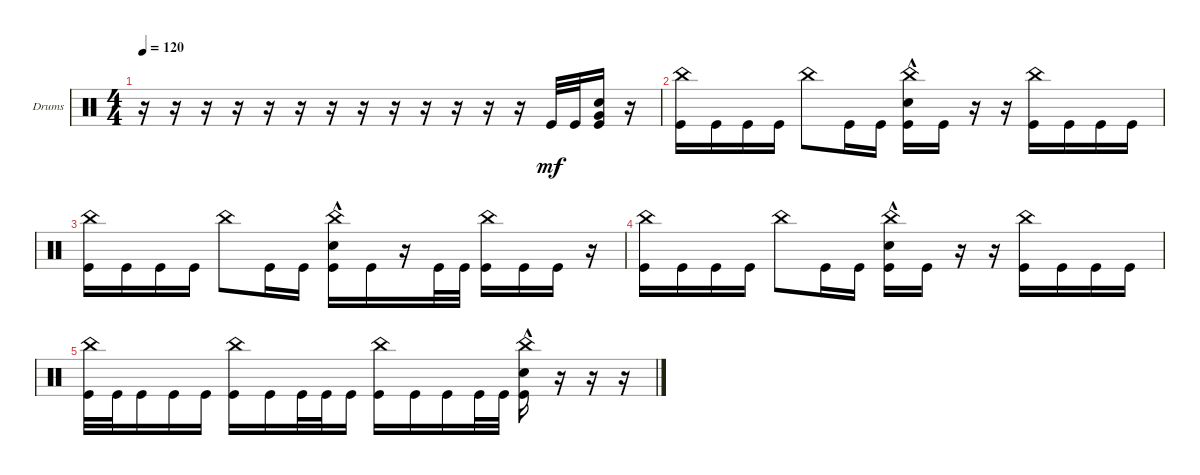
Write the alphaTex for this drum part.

\defaultSystemsLayout 4
\bracketExtendMode groupsimilarinstruments
\firstSystemTrackNameOrientation horizontal
\otherSystemsTrackNameOrientation horizontal
\track ("Drumkit" "Drums") {instrument percussion}
\staff {score}
\articulation defaults
\ts (4 4)
\tempo 120
\clef neutral
\ks c
r.16{dy mf} r.16 r.16 r.16 r.16 r.16 r.16 r.16 r.16 r.16 r.16 r.16 r.16 "Kick (hit)".32 "Kick (hit)".32 ("Kick (hit)" "Very Low Tom (hit)" "Snare (hit) 2").16 r.16 |
("China (hit)" "Kick (hit)").16 "Kick (hit)".16 "Kick (hit)".16 "Kick (hit)".16 "China (hit)".8 "Kick (hit)".16 "Kick (hit)".16 ("Kick (hit)" "China (hit)" "Snare (hit) 2"{hac}).16 "Kick (hit)".16 r.16 r.16 ("China (hit)" "Kick (hit)").16 "Kick (hit)".16 "Kick (hit)".16 "Kick (hit)".16 |
("China (hit)" "Kick (hit)").16 "Kick (hit)".16 "Kick (hit)".16 "Kick (hit)".16 "China (hit)".8 "Kick (hit)".16 "Kick (hit)".16 ("Kick (hit)" "China (hit)" "Snare (hit) 2"{hac}).16 "Kick (hit)".16 r.16 "Kick (hit)".32 "Kick (hit)".32 ("China (hit)" "Kick (hit)").16 "Kick (hit)".16 "Kick (hit)".16 r.16 |
("China (hit)" "Kick (hit)").16 "Kick (hit)".16 "Kick (hit)".16 "Kick (hit)".16 "China (hit)".8 "Kick (hit)".16 "Kick (hit)".16 ("Kick (hit)" "China (hit)" "Snare (hit) 2"{hac}).16 "Kick (hit)".16 r.16 r.16 ("China (hit)" "Kick (hit)").16 "Kick (hit)".16 "Kick (hit)".16 "Kick (hit)".16 |
("China (hit)" "Kick (hit)").32 "Kick (hit)".32 "Kick (hit)".16 "Kick (hit)".16 "Kick (hit)".16 ("China (hit)" "Kick (hit)").16 "Kick (hit)".16 "Kick (hit)".32 "Kick (hit)".32 "Kick (hit)".16 ("Kick (hit)" "China (hit)").16 "Kick (hit)".16 "Kick (hit)".16 "Kick (hit)".32 "Kick (hit)".32 ("China (hit)" "Kick (hit)" "Snare (hit) 2"{hac}).16 r.16 r.16 r.16
